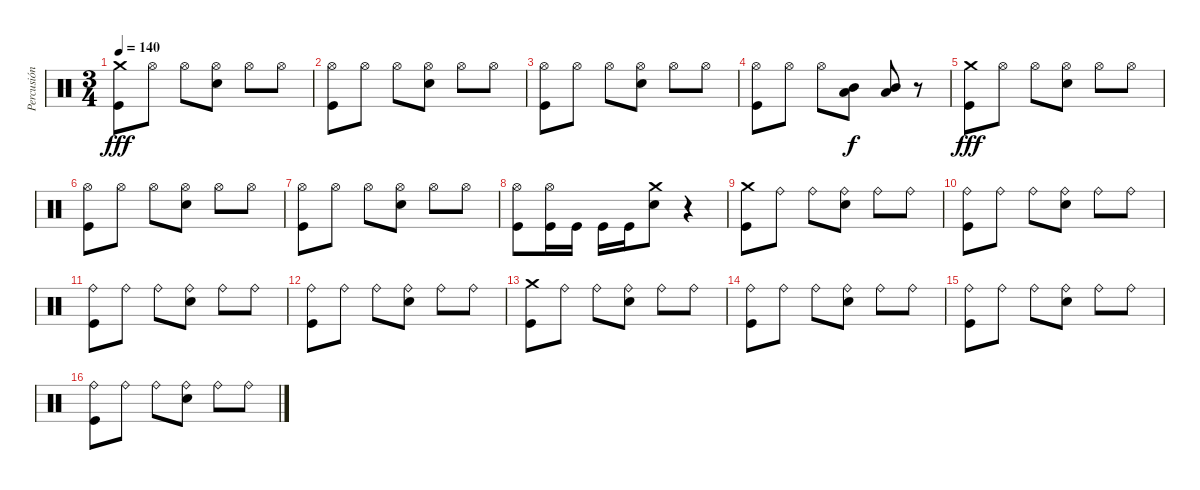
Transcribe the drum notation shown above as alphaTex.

\track ("Percusión" "Percusión") {instrument percussion}
\staff {score}
\articulation defaults
\ts (3 4)
\tempo 140
\clef neutral
\ks c
("Crash medium (hit)" "Kick (hit)").8{dy fff} "Hi-Hat (open)".8 "Hi-Hat (open)".8 ("Hi-Hat (open)" "Snare (hit) 2").8 "Hi-Hat (open)".8 "Hi-Hat (open)".8 |
("Hi-Hat (open)" "Kick (hit)").8 "Hi-Hat (open)".8 "Hi-Hat (open)".8 ("Hi-Hat (open)" "Snare (hit) 2").8 "Hi-Hat (open)".8 "Hi-Hat (open)".8 |
("Hi-Hat (open)" "Kick (hit)").8 "Hi-Hat (open)".8 "Hi-Hat (open)".8 ("Hi-Hat (open)" "Snare (hit) 2").8 "Hi-Hat (open)".8 "Hi-Hat (open)".8 |
("Hi-Hat (open)" "Kick (hit)").8 "Hi-Hat (open)".8 "Hi-Hat (open)".8 ("Low Tom (hit)" "Mid Tom (hit)").8{dy f} ("Low Tom (hit)" "Mid Tom (hit)").8 r.8 |
("Crash medium (hit)" "Kick (hit)").8{dy fff} "Hi-Hat (open)".8 "Hi-Hat (open)".8 ("Hi-Hat (open)" "Snare (hit) 2").8 "Hi-Hat (open)".8 "Hi-Hat (open)".8 |
("Hi-Hat (open)" "Kick (hit)").8 "Hi-Hat (open)".8 "Hi-Hat (open)".8 ("Hi-Hat (open)" "Snare (hit) 2").8 "Hi-Hat (open)".8 "Hi-Hat (open)".8 |
("Hi-Hat (open)" "Kick (hit)").8 "Hi-Hat (open)".8 "Hi-Hat (open)".8 ("Hi-Hat (open)" "Snare (hit) 2").8 "Hi-Hat (open)".8 "Hi-Hat (open)".8 |
("Hi-Hat (open)" "Kick (hit)").8 ("Hi-Hat (open)" "Kick (hit)").16 "Kick (hit)".16 "Kick (hit)".16 "Kick (hit)".16 ("Crash medium (hit)" "Snare (hit) 2").8 r.4 |
("Crash medium (hit)" "Kick (hit)").8 "Ride (bell)".8 "Ride (bell)".8 ("Ride (bell)" "Snare (hit) 2").8 "Ride (bell)".8 "Ride (bell)".8 |
("Ride (bell)" "Kick (hit)").8 "Ride (bell)".8 "Ride (bell)".8 ("Ride (bell)" "Snare (hit) 2").8 "Ride (bell)".8 "Ride (bell)".8 |
("Ride (bell)" "Kick (hit)").8 "Ride (bell)".8 "Ride (bell)".8 ("Ride (bell)" "Snare (hit) 2").8 "Ride (bell)".8 "Ride (bell)".8 |
("Ride (bell)" "Kick (hit)").8 "Ride (bell)".8 "Ride (bell)".8 ("Ride (bell)" "Snare (hit) 2").8 "Ride (bell)".8 "Ride (bell)".8 |
("Crash medium (hit)" "Kick (hit)").8 "Ride (bell)".8 "Ride (bell)".8 ("Ride (bell)" "Snare (hit) 2").8 "Ride (bell)".8 "Ride (bell)".8 |
("Ride (bell)" "Kick (hit)").8 "Ride (bell)".8 "Ride (bell)".8 ("Ride (bell)" "Snare (hit) 2").8 "Ride (bell)".8 "Ride (bell)".8 |
("Ride (bell)" "Kick (hit)").8 "Ride (bell)".8 "Ride (bell)".8 ("Ride (bell)" "Snare (hit) 2").8 "Ride (bell)".8 "Ride (bell)".8 |
("Ride (bell)" "Kick (hit)").8 "Ride (bell)".8 "Ride (bell)".8 ("Ride (bell)" "Snare (hit) 2").8 "Ride (bell)".8 "Ride (bell)".8
